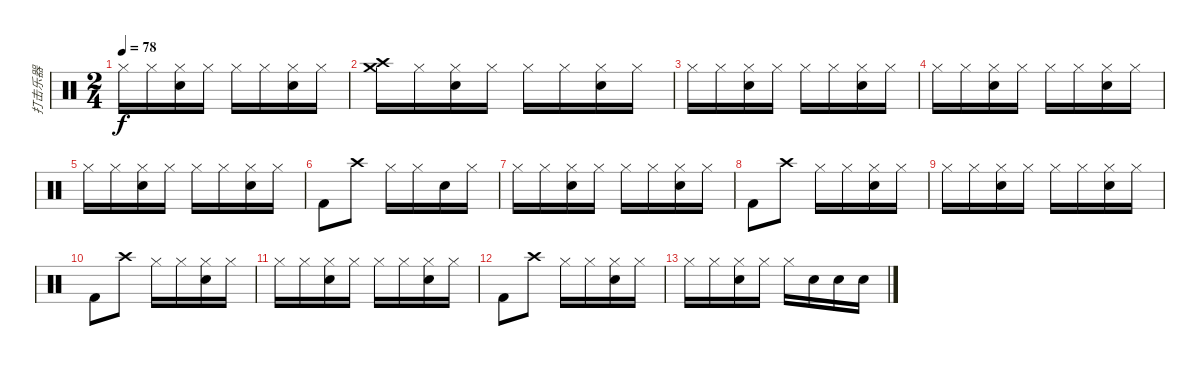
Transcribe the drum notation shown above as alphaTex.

\track ("打击乐器" "打击乐器") {instrument percussion}
\staff {score}
\articulation defaults
\ts (2 4)
\tempo 78
\clef neutral
\ks c "Hi-Hat (closed)".16{dy f} "Hi-Hat (closed)".16
("Hi-Hat (closed)" "Snare (hit) 2").16 "Hi-Hat (closed)".16 "Hi-Hat (closed)".16 "Hi-Hat (closed)".16 ("Hi-Hat (closed)" "Snare (hit) 2").16 "Hi-Hat (closed)".16 |
("Crash high (hit)" "Crash medium (hit)").16 "Hi-Hat (closed)".16 ("Hi-Hat (closed)" "Snare (hit) 2").16 "Hi-Hat (closed)".16 "Hi-Hat (closed)".16 "Hi-Hat (closed)".16 ("Hi-Hat (closed)" "Snare (hit) 2").16 "Hi-Hat (closed)".16 |
"Hi-Hat (closed)".16 "Hi-Hat (closed)".16 ("Hi-Hat (closed)" "Snare (hit) 2").16 "Hi-Hat (closed)".16 "Hi-Hat (closed)".16 "Hi-Hat (closed)".16 ("Hi-Hat (closed)" "Snare (hit) 2").16 "Hi-Hat (closed)".16 |
"Hi-Hat (closed)".16 "Hi-Hat (closed)".16 ("Hi-Hat (closed)" "Snare (hit) 2").16 "Hi-Hat (closed)".16 "Hi-Hat (closed)".16 "Hi-Hat (closed)".16 ("Hi-Hat (closed)" "Snare (hit) 2").16 "Hi-Hat (closed)".16 |
"Hi-Hat (closed)".16 "Hi-Hat (closed)".16 ("Hi-Hat (closed)" "Snare (hit) 2").16 "Hi-Hat (closed)".16 "Hi-Hat (closed)".16 "Hi-Hat (closed)".16 ("Hi-Hat (closed)" "Snare (hit) 2").16 "Hi-Hat (closed)".16 |
"Kick (hit) 2".8 "Crash high (hit)".8 "Hi-Hat (closed)".16 "Hi-Hat (closed)".16 "Snare (hit) 2".16 "Hi-Hat (closed)".16 |
"Hi-Hat (closed)".16 "Hi-Hat (closed)".16 ("Hi-Hat (closed)" "Snare (hit) 2").16 "Hi-Hat (closed)".16 "Hi-Hat (closed)".16 "Hi-Hat (closed)".16 ("Hi-Hat (closed)" "Snare (hit) 2").16 "Hi-Hat (closed)".16 |
"Kick (hit) 2".8 "Crash high (hit)".8 "Hi-Hat (closed)".16 "Hi-Hat (closed)".16 ("Hi-Hat (closed)" "Snare (hit) 2").16 "Hi-Hat (closed)".16 |
"Hi-Hat (closed)".16 "Hi-Hat (closed)".16 ("Hi-Hat (closed)" "Snare (hit) 2").16 "Hi-Hat (closed)".16 "Hi-Hat (closed)".16 "Hi-Hat (closed)".16 ("Hi-Hat (closed)" "Snare (hit) 2").16 "Hi-Hat (closed)".16 |
"Kick (hit) 2".8 "Crash high (hit)".8 "Hi-Hat (closed)".16 "Hi-Hat (closed)".16 ("Hi-Hat (closed)" "Snare (hit) 2").16 "Hi-Hat (closed)".16 |
"Hi-Hat (closed)".16 "Hi-Hat (closed)".16 ("Hi-Hat (closed)" "Snare (hit) 2").16 "Hi-Hat (closed)".16 "Hi-Hat (closed)".16 "Hi-Hat (closed)".16 ("Hi-Hat (closed)" "Snare (hit) 2").16 "Hi-Hat (closed)".16 |
"Kick (hit) 2".8 "Crash high (hit)".8 "Hi-Hat (closed)".16 "Hi-Hat (closed)".16 ("Hi-Hat (closed)" "Snare (hit) 2").16 "Hi-Hat (closed)".16 |
"Hi-Hat (closed)".16 "Hi-Hat (closed)".16 ("Hi-Hat (closed)" "Snare (hit) 2").16 "Hi-Hat (closed)".16 "Hi-Hat (closed)".16 "Electric Snare (hit)".16 "Electric Snare (hit)".16 "Electric Snare (hit)".16
